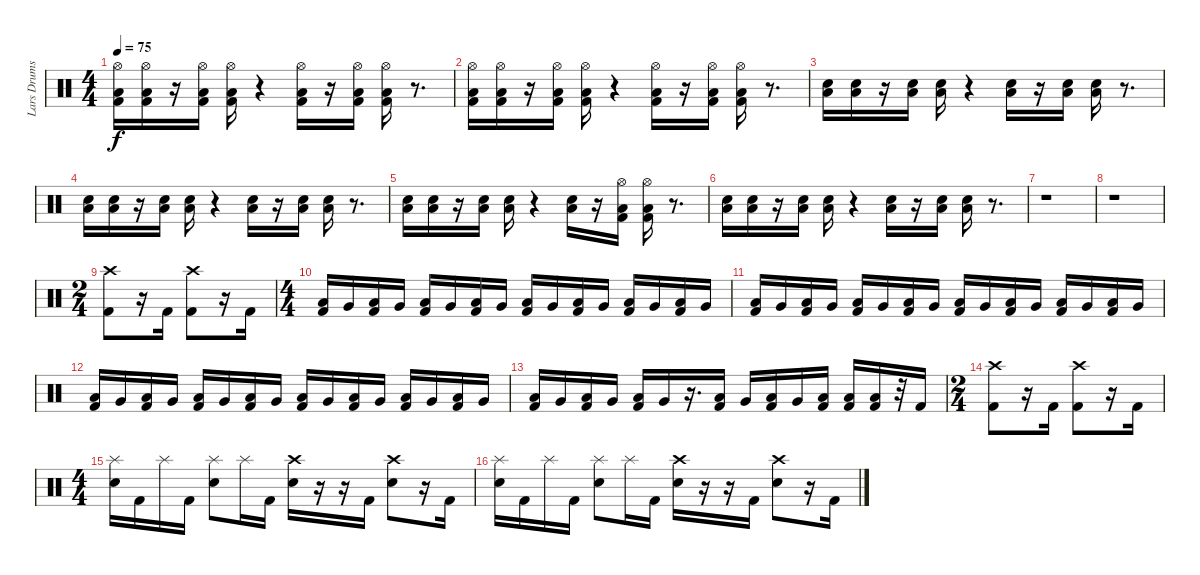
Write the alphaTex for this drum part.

\track ("Lars Drums" "Lars Drums") {instrument percussion}
\staff {score}
\articulation defaults
\ts (4 4)
\tempo 75
\clef neutral
\ks c
("Hi-Hat (open)" "Low Floor Tom (hit)" "Kick (hit) 2").16{dy f} ("Hi-Hat (open)" "Low Floor Tom (hit)" "Kick (hit) 2").16 r.16 ("Hi-Hat (open)" "Low Floor Tom (hit)" "Kick (hit) 2").16 ("Hi-Hat (open)" "Low Floor Tom (hit)" "Kick (hit) 2").16 r.4 ("Hi-Hat (open)" "Low Floor Tom (hit)" "Kick (hit) 2").16 r.16 ("Hi-Hat (open)" "Low Floor Tom (hit)" "Kick (hit) 2").16 ("Hi-Hat (open)" "Low Floor Tom (hit)" "Kick (hit) 2").16 r.8{d} |
("Hi-Hat (open)" "Low Floor Tom (hit)" "Kick (hit) 2").16 ("Hi-Hat (open)" "Low Floor Tom (hit)" "Kick (hit) 2").16 r.16 ("Hi-Hat (open)" "Low Floor Tom (hit)" "Kick (hit) 2").16 ("Hi-Hat (open)" "Low Floor Tom (hit)" "Kick (hit) 2").16 r.4 ("Hi-Hat (open)" "Low Floor Tom (hit)" "Kick (hit) 2").16 r.16 ("Hi-Hat (open)" "Low Floor Tom (hit)" "Kick (hit) 2").16 ("Hi-Hat (open)" "Low Floor Tom (hit)" "Kick (hit) 2").16 r.8{d} |
("Low Floor Tom (hit)" "Snare (hit) 2").16 ("Low Floor Tom (hit)" "Snare (hit) 2").16 r.16 ("Low Floor Tom (hit)" "Snare (hit) 2").16 ("Low Floor Tom (hit)" "Snare (hit) 2").16 r.4 ("Low Floor Tom (hit)" "Snare (hit) 2").16 r.16 ("Low Floor Tom (hit)" "Snare (hit) 2").16 ("Low Floor Tom (hit)" "Snare (hit) 2").16 r.8{d} |
("Low Floor Tom (hit)" "Snare (hit) 2").16 ("Low Floor Tom (hit)" "Snare (hit) 2").16 r.16 ("Low Floor Tom (hit)" "Snare (hit) 2").16 ("Low Floor Tom (hit)" "Snare (hit) 2").16 r.4 ("Low Floor Tom (hit)" "Snare (hit) 2").16 r.16 ("Low Floor Tom (hit)" "Snare (hit) 2").16 ("Low Floor Tom (hit)" "Snare (hit) 2").16 r.8{d} |
("Low Floor Tom (hit)" "Snare (hit) 2").16 ("Low Floor Tom (hit)" "Snare (hit) 2").16 r.16 ("Low Floor Tom (hit)" "Snare (hit) 2").16 ("Low Floor Tom (hit)" "Snare (hit) 2").16 r.4 ("Low Floor Tom (hit)" "Snare (hit) 2").16 r.16 ("Hi-Hat (open)" "Low Floor Tom (hit)" "Kick (hit) 2").16 ("Hi-Hat (open)" "Low Floor Tom (hit)" "Kick (hit) 2").16 r.8{d} |
("Low Floor Tom (hit)" "Snare (hit) 2").16 ("Low Floor Tom (hit)" "Snare (hit) 2").16 r.16 ("Low Floor Tom (hit)" "Snare (hit) 2").16 ("Low Floor Tom (hit)" "Snare (hit) 2").16 r.4 ("Low Floor Tom (hit)" "Snare (hit) 2").16 r.16 ("Low Floor Tom (hit)" "Snare (hit) 2").16 ("Low Floor Tom (hit)" "Snare (hit) 2").16 r.8{d} |
r.1 |
r.1 |
\ts (2 4)
("Crash high (hit)" "Kick (hit) 2").8 r.16 "Kick (hit) 2".16 ("Crash high (hit)" "Kick (hit) 2").8 r.16 "Kick (hit) 2".16 |
\ts (4 4)
("Kick (hit) 2" "Low Floor Tom (hit)").16 "Very Low Tom (hit)".16 ("Kick (hit) 2" "Low Floor Tom (hit)").16 "Very Low Tom (hit)".16 ("Kick (hit) 2" "Low Floor Tom (hit)").16 "Very Low Tom (hit)".16 ("Kick (hit) 2" "Low Floor Tom (hit)").16 "Very Low Tom (hit)".16 ("Kick (hit) 2" "Low Floor Tom (hit)").16 "Very Low Tom (hit)".16 ("Kick (hit) 2" "Low Floor Tom (hit)").16 "Very Low Tom (hit)".16 ("Kick (hit) 2" "Low Floor Tom (hit)").16 "Very Low Tom (hit)".16 ("Kick (hit) 2" "Low Floor Tom (hit)").16 "Very Low Tom (hit)".16 |
("Kick (hit) 2" "Low Floor Tom (hit)").16 "Very Low Tom (hit)".16 ("Kick (hit) 2" "Low Floor Tom (hit)").16 "Very Low Tom (hit)".16 ("Kick (hit) 2" "Low Floor Tom (hit)").16 "Very Low Tom (hit)".16 ("Kick (hit) 2" "Low Floor Tom (hit)").16 "Very Low Tom (hit)".16 ("Kick (hit) 2" "Low Floor Tom (hit)").16 "Very Low Tom (hit)".16 ("Kick (hit) 2" "Low Floor Tom (hit)").16 "Very Low Tom (hit)".16 ("Kick (hit) 2" "Low Floor Tom (hit)").16 "Very Low Tom (hit)".16 ("Kick (hit) 2" "Low Floor Tom (hit)").16 "Very Low Tom (hit)".16 |
("Kick (hit) 2" "Low Floor Tom (hit)").16 "Very Low Tom (hit)".16 ("Kick (hit) 2" "Low Floor Tom (hit)").16 "Very Low Tom (hit)".16 ("Kick (hit) 2" "Low Floor Tom (hit)").16 "Very Low Tom (hit)".16 ("Kick (hit) 2" "Low Floor Tom (hit)").16 "Very Low Tom (hit)".16 ("Kick (hit) 2" "Low Floor Tom (hit)").16 "Very Low Tom (hit)".16 ("Kick (hit) 2" "Low Floor Tom (hit)").16 "Very Low Tom (hit)".16 ("Kick (hit) 2" "Low Floor Tom (hit)").16 "Very Low Tom (hit)".16 ("Kick (hit) 2" "Low Floor Tom (hit)").16 "Very Low Tom (hit)".16 |
("Kick (hit) 2" "Low Floor Tom (hit)").16 "Very Low Tom (hit)".16 ("Kick (hit) 2" "Low Floor Tom (hit)").16 "Very Low Tom (hit)".16 ("Kick (hit) 2" "Low Floor Tom (hit)").16 "Very Low Tom (hit)".16 r.16{d} ("Kick (hit) 2" "Low Floor Tom (hit)").16 "Very Low Tom (hit)".16 ("Kick (hit) 2" "Low Floor Tom (hit)").16 "Very Low Tom (hit)".16 ("Kick (hit) 2" "Low Floor Tom (hit)").16 ("Kick (hit) 2" "Low Floor Tom (hit)").16 ("Kick (hit) 2" "Low Floor Tom (hit)").16 r.32 "Kick (hit) 2".16 |
\ts (2 4)
("Crash high (hit)" "Kick (hit) 2").8 r.16 "Kick (hit) 2".16 ("Crash high (hit)" "Kick (hit) 2").8 r.16 "Kick (hit) 2".16 |
\ts (4 4)
("Splash (hit)" "Snare (hit) 2").16 "Kick (hit) 2".16 "Splash (hit)".16 "Kick (hit) 2".16 ("Splash (hit)" "Snare (hit) 2").8 "Splash (hit)".16 "Kick (hit) 2".16 ("Crash high (hit)" "Snare (hit) 2").16 r.16 r.16 "Kick (hit) 2".16 ("Crash high (hit)" "Snare (hit) 2").8 r.16 "Kick (hit) 2".16 |
("Splash (hit)" "Snare (hit) 2").16 "Kick (hit) 2".16 "Splash (hit)".16 "Kick (hit) 2".16 ("Splash (hit)" "Snare (hit) 2").8 "Splash (hit)".16 "Kick (hit) 2".16 ("Crash high (hit)" "Snare (hit) 2").16 r.16 r.16 "Kick (hit) 2".16 ("Crash high (hit)" "Snare (hit) 2").8 r.16 "Kick (hit) 2".16
